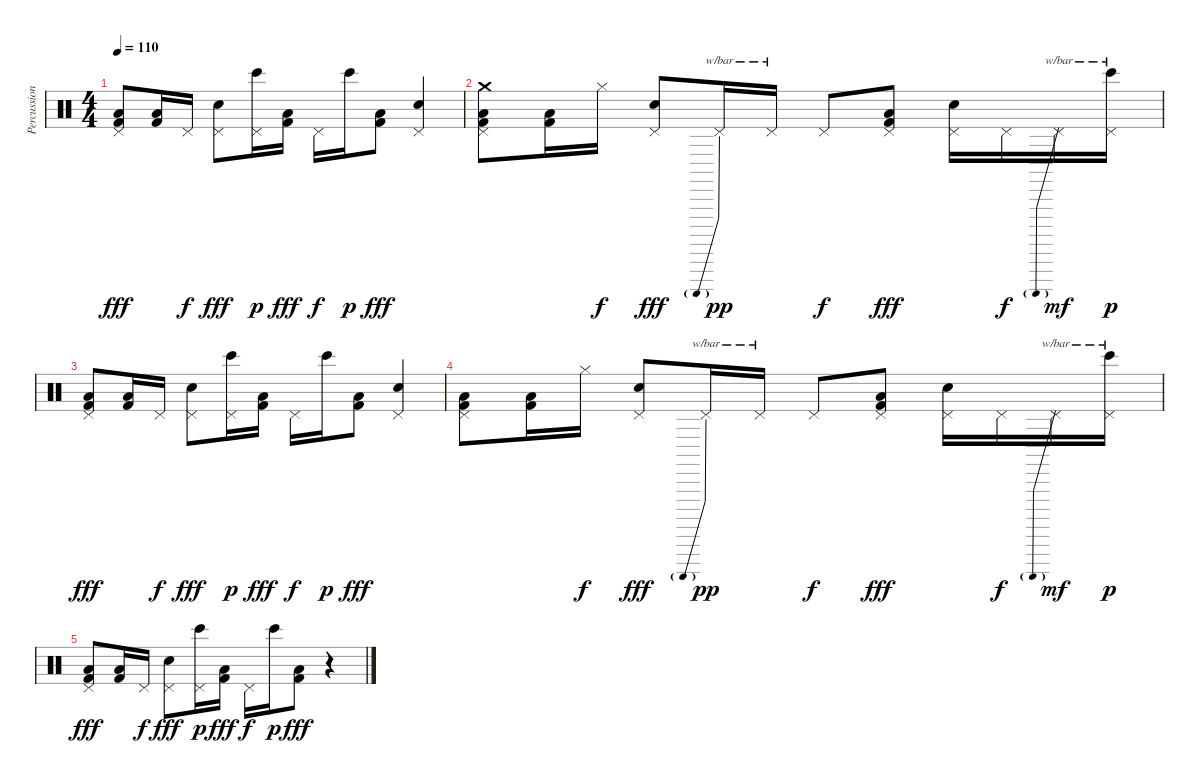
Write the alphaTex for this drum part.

\track ("Percussion" "Percussion") {instrument percussion}
\staff {score}
\articulation defaults
\ts (4 4)
\tempo 110
\clef neutral
\ks c
("Pedal Hi-Hat (hit)" "Kick (hit) 2" "Low Floor Tom (hit)"{be (hold 0 0 60 0)}).8{dy fff} ("Kick (hit) 2" "Low Floor Tom (hit)"{be (hold 0 0 60 0)}).16 "Pedal Hi-Hat (hit)".16{dy f} ("Pedal Hi-Hat (hit)" "Hand Clap (hit)").8{dy fff} ("Pedal Hi-Hat (hit)" "Bongo High (hit)").16{dy p} ("Kick (hit) 2" "Low Floor Tom (hit)"{be (hold 0 0 60 0)}).16{dy fff} "Pedal Hi-Hat (hit)".16{dy f} "Bongo High (hit)".16{dy p} ("Kick (hit) 2" "Low Floor Tom (hit)"{be (hold 0 0 60 0)}).8{dy fff} ("Pedal Hi-Hat (hit)" "Hand Clap (hit)").4 |
("Crash medium (hit)" "Pedal Hi-Hat (hit)" "Kick (hit) 2" "Low Floor Tom (hit)"{be (hold 0 0 60 0)}).8 ("Kick (hit) 2" "Low Floor Tom (hit)"{be (hold 0 0 60 0)}).16 "Hi-Hat (closed)".16{dy f} ("Pedal Hi-Hat (hit)" "Hand Clap (hit)").8{dy fff} "Pedal Hi-Hat (hit)".16{tbe (predive default 0 -24 60 -24) dy pp} "Pedal Hi-Hat (hit)".16{tbe (hold default 0 -14 60 -14)} "Pedal Hi-Hat (hit)".8{dy f} ("Pedal Hi-Hat (hit)" "Kick (hit) 2" "Low Floor Tom (hit)"{be (hold 0 0 60 0)}).8{dy fff} ("Pedal Hi-Hat (hit)" "Hand Clap (hit)").16 "Pedal Hi-Hat (hit)".16{dy f} "Pedal Hi-Hat (hit)".16{tbe (predive default 0 -24 60 -24) dy mf} ("Pedal Hi-Hat (hit)" "Bongo High (hit)").16{tbe (hold default 0 -14 60 -14) dy p} |
("Pedal Hi-Hat (hit)" "Kick (hit) 2" "Low Floor Tom (hit)"{be (hold 0 0 60 0)}).8{dy fff} ("Kick (hit) 2" "Low Floor Tom (hit)"{be (hold 0 0 60 0)}).16 "Pedal Hi-Hat (hit)".16{dy f} ("Pedal Hi-Hat (hit)" "Hand Clap (hit)").8{dy fff} ("Pedal Hi-Hat (hit)" "Bongo High (hit)").16{dy p} ("Kick (hit) 2" "Low Floor Tom (hit)"{be (hold 0 0 60 0)}).16{dy fff} "Pedal Hi-Hat (hit)".16{dy f} "Bongo High (hit)".16{dy p} ("Kick (hit) 2" "Low Floor Tom (hit)"{be (hold 0 0 60 0)}).8{dy fff} ("Pedal Hi-Hat (hit)" "Hand Clap (hit)").4 |
("Pedal Hi-Hat (hit)" "Kick (hit) 2" "Low Floor Tom (hit)"{be (hold 0 0 60 0)}).8 ("Kick (hit) 2" "Low Floor Tom (hit)"{be (hold 0 0 60 0)}).16 "Hi-Hat (closed)".16{dy f} ("Pedal Hi-Hat (hit)" "Hand Clap (hit)").8{dy fff} "Pedal Hi-Hat (hit)".16{tbe (predive default 0 -24 60 -24) dy pp} "Pedal Hi-Hat (hit)".16{tbe (hold default 0 -14 60 -14)} "Pedal Hi-Hat (hit)".8{dy f} ("Pedal Hi-Hat (hit)" "Kick (hit) 2" "Low Floor Tom (hit)"{be (hold 0 0 60 0)}).8{dy fff} ("Pedal Hi-Hat (hit)" "Hand Clap (hit)").16 "Pedal Hi-Hat (hit)".16{dy f} "Pedal Hi-Hat (hit)".16{tbe (predive default 0 -24 60 -24) dy mf} ("Pedal Hi-Hat (hit)" "Bongo High (hit)").16{tbe (hold default 0 -14 60 -14) dy p} |
("Pedal Hi-Hat (hit)" "Kick (hit) 2" "Low Floor Tom (hit)"{be (hold 0 0 60 0)}).8{dy fff} ("Kick (hit) 2" "Low Floor Tom (hit)"{be (hold 0 0 60 0)}).16 "Pedal Hi-Hat (hit)".16{dy f} ("Pedal Hi-Hat (hit)" "Hand Clap (hit)").8{dy fff} ("Pedal Hi-Hat (hit)" "Bongo High (hit)").16{dy p} ("Kick (hit) 2" "Low Floor Tom (hit)"{be (hold 0 0 60 0)}).16{dy fff} "Pedal Hi-Hat (hit)".16{dy f} "Bongo High (hit)".16{dy p} ("Kick (hit) 2" "Low Floor Tom (hit)"{be (hold 0 0 60 0)}).8{dy fff} r.4
